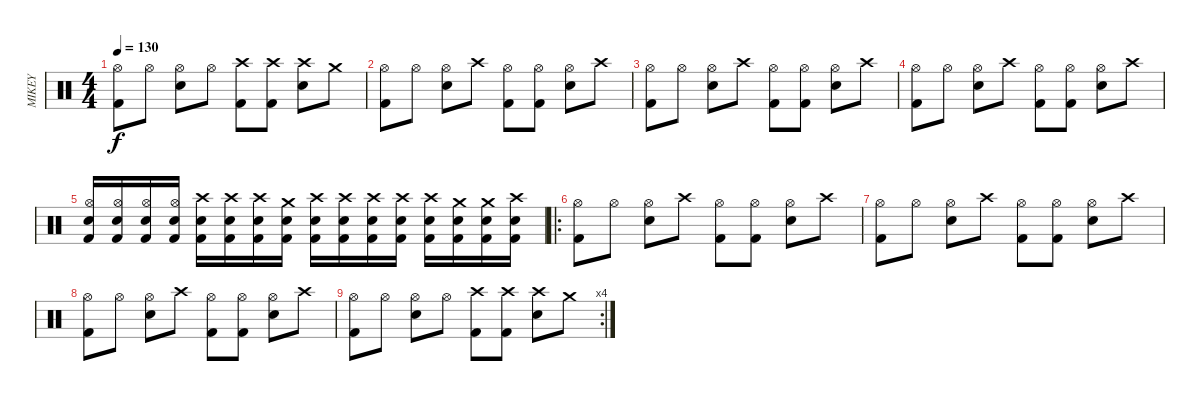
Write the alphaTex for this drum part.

\track ("MIKEY" "MIKEY") {instrument percussion}
\staff {score}
\articulation defaults
\ts (4 4)
\tempo 130
\clef neutral
\ks c
("Kick (hit) 2" "Hi-Hat (open)").8{dy f} "Hi-Hat (open)".8 ("Electric Snare (hit)" "Hi-Hat (open)").8 "Hi-Hat (open)".8 ("Kick (hit) 2" "Crash high (hit)").8 ("Kick (hit) 2" "Crash high (hit)").8 ("Electric Snare (hit)" "Crash high (hit)").8 "Crash medium (hit)".8 |
("Kick (hit) 2" "Hi-Hat (open)").8 "Hi-Hat (open)".8 ("Electric Snare (hit)" "Hi-Hat (open)").8 "Crash high (hit)".8 ("Kick (hit) 2" "Hi-Hat (open)").8 ("Kick (hit) 2" "Hi-Hat (open)").8 ("Electric Snare (hit)" "Hi-Hat (open)").8 "Crash high (hit)".8 |
("Kick (hit) 2" "Hi-Hat (open)").8 "Hi-Hat (open)".8 ("Electric Snare (hit)" "Hi-Hat (open)").8 "Crash high (hit)".8 ("Kick (hit) 2" "Hi-Hat (open)").8 ("Kick (hit) 2" "Hi-Hat (open)").8 ("Electric Snare (hit)" "Hi-Hat (open)").8 "Crash high (hit)".8 |
("Kick (hit) 2" "Hi-Hat (open)").8 "Hi-Hat (open)".8 ("Electric Snare (hit)" "Hi-Hat (open)").8 "Crash high (hit)".8 ("Kick (hit) 2" "Hi-Hat (open)").8 ("Kick (hit) 2" "Hi-Hat (open)").8 ("Electric Snare (hit)" "Hi-Hat (open)").8 "Crash high (hit)".8 |
("Electric Snare (hit)" "Kick (hit) 2" "Hi-Hat (open)").16 ("Electric Snare (hit)" "Kick (hit) 2" "Hi-Hat (open)").16 ("Electric Snare (hit)" "Kick (hit) 2" "Hi-Hat (open)").16 ("Electric Snare (hit)" "Kick (hit) 2" "Hi-Hat (open)").16 ("Electric Snare (hit)" "Kick (hit) 2" "Crash high (hit)").16 ("Electric Snare (hit)" "Kick (hit) 2" "Crash high (hit)").16 ("Electric Snare (hit)" "Kick (hit) 2" "Crash high (hit)").16 ("Electric Snare (hit)" "Kick (hit) 2" "Crash medium (hit)").16 ("Electric Snare (hit)" "Kick (hit) 2" "Crash high (hit)").16 ("Electric Snare (hit)" "Kick (hit) 2" "Crash high (hit)").16 ("Electric Snare (hit)" "Kick (hit) 2" "Crash high (hit)").16 ("Electric Snare (hit)" "Kick (hit) 2" "Crash high (hit)").16 ("Electric Snare (hit)" "Kick (hit) 2" "Crash high (hit)").16 ("Electric Snare (hit)" "Kick (hit) 2" "Crash medium (hit)").16 ("Electric Snare (hit)" "Kick (hit) 2" "Crash medium (hit)").16 ("Electric Snare (hit)" "Kick (hit) 2" "Crash high (hit)").16 |
\ro
("Kick (hit) 2" "Hi-Hat (open)").8 "Hi-Hat (open)".8 ("Electric Snare (hit)" "Hi-Hat (open)").8 "Crash high (hit)".8 ("Kick (hit) 2" "Hi-Hat (open)").8 ("Kick (hit) 2" "Hi-Hat (open)").8 ("Electric Snare (hit)" "Hi-Hat (open)").8 "Crash high (hit)".8 |
("Kick (hit) 2" "Hi-Hat (open)").8 "Hi-Hat (open)".8 ("Electric Snare (hit)" "Hi-Hat (open)").8 "Crash high (hit)".8 ("Kick (hit) 2" "Hi-Hat (open)").8 ("Kick (hit) 2" "Hi-Hat (open)").8 ("Electric Snare (hit)" "Hi-Hat (open)").8 "Crash high (hit)".8 |
("Kick (hit) 2" "Hi-Hat (open)").8 "Hi-Hat (open)".8 ("Electric Snare (hit)" "Hi-Hat (open)").8 "Crash high (hit)".8 ("Kick (hit) 2" "Hi-Hat (open)").8 ("Kick (hit) 2" "Hi-Hat (open)").8 ("Electric Snare (hit)" "Hi-Hat (open)").8 "Crash high (hit)".8 |
\rc 4
("Kick (hit) 2" "Hi-Hat (open)").8 "Hi-Hat (open)".8 ("Electric Snare (hit)" "Hi-Hat (open)").8 "Hi-Hat (open)".8 ("Kick (hit) 2" "Crash high (hit)").8 ("Kick (hit) 2" "Crash high (hit)").8 ("Electric Snare (hit)" "Crash high (hit)").8 "Crash medium (hit)".8
